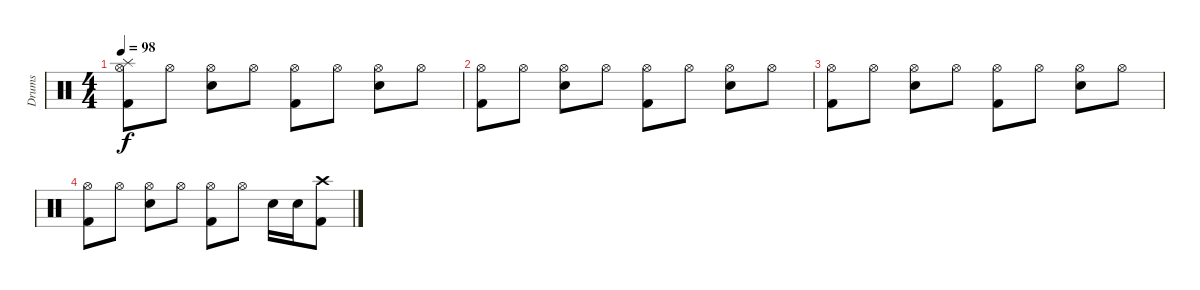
\track ("Drums" "Drums") {instrument percussion}
\staff {score}
\articulation defaults
\ts (4 4)
\tempo 98
\clef neutral
\ks c
("Hi-Hat (open)" "Kick (hit) 2" "Splash (hit)").8{dy f} "Hi-Hat (open)".8 ("Hi-Hat (open)" "Snare (hit) 2").8 "Hi-Hat (open)".8 ("Hi-Hat (open)" "Kick (hit) 2").8 "Hi-Hat (open)".8 ("Hi-Hat (open)" "Snare (hit) 2").8 "Hi-Hat (open)".8 |
("Hi-Hat (open)" "Kick (hit) 2").8 "Hi-Hat (open)".8 ("Hi-Hat (open)" "Snare (hit) 2").8 "Hi-Hat (open)".8 ("Hi-Hat (open)" "Kick (hit) 2").8 "Hi-Hat (open)".8 ("Hi-Hat (open)" "Snare (hit) 2").8 "Hi-Hat (open)".8 |
("Hi-Hat (open)" "Kick (hit) 2").8 "Hi-Hat (open)".8 ("Hi-Hat (open)" "Snare (hit) 2").8 "Hi-Hat (open)".8 ("Hi-Hat (open)" "Kick (hit) 2").8 "Hi-Hat (open)".8 ("Hi-Hat (open)" "Snare (hit) 2").8 "Hi-Hat (open)".8 |
("Hi-Hat (open)" "Kick (hit) 2").8 "Hi-Hat (open)".8 ("Hi-Hat (open)" "Snare (hit) 2").8 "Hi-Hat (open)".8 ("Hi-Hat (open)" "Kick (hit) 2").8 "Hi-Hat (open)".8 "Snare (hit) 2".16 "Snare (hit) 2".16 ("Crash high (hit)" "Kick (hit) 2").8
